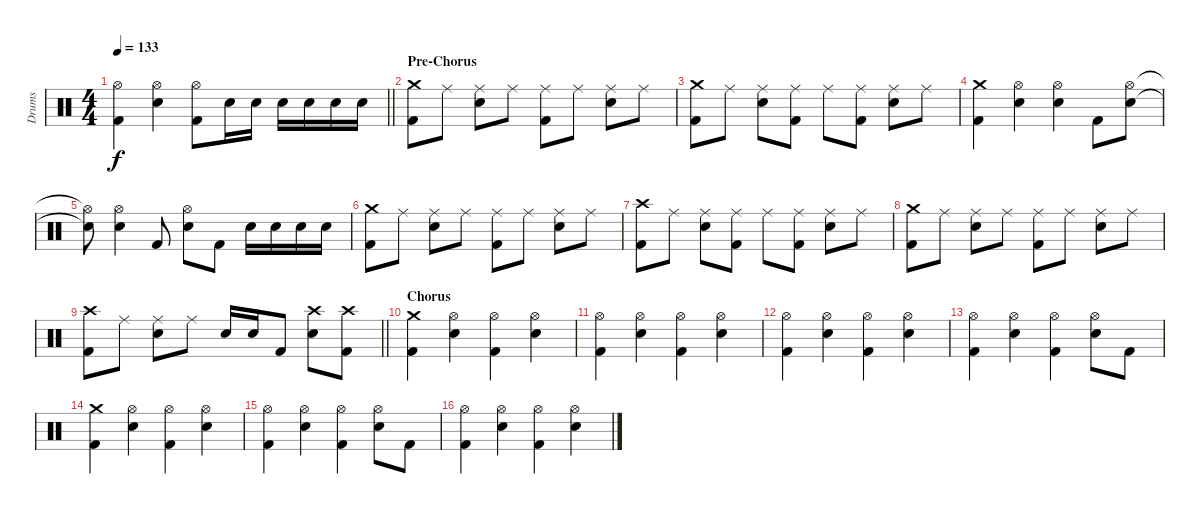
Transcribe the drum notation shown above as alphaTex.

\track ("Drums" "Drums") {instrument percussion}
\staff {score}
\articulation defaults
\ts (4 4)
\tempo 133
\clef neutral
\barLineRight lightlight
\ks c
("Hi-Hat (open)" "Kick (hit) 2").4{dy f} ("Hi-Hat (open)" "Snare (hit) 2").4 ("Hi-Hat (open)" "Kick (hit) 2").8 "Snare (hit) 2".16 "Snare (hit) 2".16 "Snare (hit) 2".16 "Snare (hit) 2".16 "Snare (hit) 2".16 "Snare (hit) 2".16 |
\section ("" "Pre-Chorus")
("Crash medium (hit)" "Kick (hit) 2").8 "Ride (middle)".8 ("Ride (middle)" "Snare (hit) 2").8 "Ride (middle)".8 ("Ride (middle)" "Kick (hit) 2").8 "Ride (middle)".8 ("Ride (middle)" "Snare (hit) 2").8 "Ride (middle)".8 |
("Crash medium (hit)" "Kick (hit) 2").8 "Ride (middle)".8 ("Ride (middle)" "Snare (hit) 2").8 ("Ride (middle)" "Kick (hit) 2").8 "Ride (middle)".8 ("Ride (middle)" "Kick (hit) 2").8 ("Ride (middle)" "Snare (hit) 2").8 "Ride (middle)".8 |
("Crash medium (hit)" "Kick (hit) 2").4 ("Hi-Hat (open)" "Snare (hit) 2").4 ("Hi-Hat (open)" "Snare (hit) 2").4 "Kick (hit) 2".8 ("Hi-Hat (open)" "Snare (hit) 2").8 |
("Hi-Hat (open)"{t} "Snare (hit) 2"{t}).8 ("Hi-Hat (open)" "Snare (hit) 2").4 "Kick (hit) 2".8 ("Hi-Hat (open)" "Snare (hit) 2").8 "Kick (hit) 2".8 "Snare (hit) 2".16 "Snare (hit) 2".16 "Snare (hit) 2".16 "Snare (hit) 2".16 |
("Crash medium (hit)" "Kick (hit) 2").8 "Ride (middle)".8 ("Ride (middle)" "Snare (hit) 2").8 "Ride (middle)".8 ("Ride (middle)" "Kick (hit) 2").8 "Ride (middle)".8 ("Ride (middle)" "Snare (hit) 2").8 "Ride (middle)".8 |
("Crash high (hit)" "Kick (hit) 2").8 "Ride (middle)".8 ("Ride (middle)" "Snare (hit) 2").8 ("Ride (middle)" "Kick (hit) 2").8 "Ride (middle)".8 ("Ride (middle)" "Kick (hit) 2").8 ("Ride (middle)" "Snare (hit) 2").8 "Ride (middle)".8 |
("Crash medium (hit)" "Kick (hit) 2").8 "Ride (middle)".8 ("Ride (middle)" "Snare (hit) 2").8 "Ride (middle)".8 ("Ride (middle)" "Kick (hit) 2").8 "Ride (middle)".8 ("Ride (middle)" "Snare (hit) 2").8 "Ride (middle)".8 |
\barLineRight lightlight
("Crash high (hit)" "Kick (hit) 2").8 "Ride (middle)".8 ("Ride (middle)" "Snare (hit) 2").8 "Ride (middle)".8 "Snare (hit) 2".16 "Snare (hit) 2".16 "Kick (hit) 2".8 ("Crash high (hit)" "Snare (hit) 2").8 ("Crash high (hit)" "Kick (hit) 2").8 |
\section ("" "Chorus")
("Crash medium (hit)" "Kick (hit) 2").4 ("Hi-Hat (open)" "Snare (hit) 2").4 ("Hi-Hat (open)" "Kick (hit) 2").4 ("Hi-Hat (open)" "Snare (hit) 2").4 |
("Hi-Hat (open)" "Kick (hit) 2").4 ("Hi-Hat (open)" "Snare (hit) 2").4 ("Hi-Hat (open)" "Kick (hit) 2").4 ("Hi-Hat (open)" "Snare (hit) 2").4 |
("Hi-Hat (open)" "Kick (hit) 2").4 ("Hi-Hat (open)" "Snare (hit) 2").4 ("Hi-Hat (open)" "Kick (hit) 2").4 ("Hi-Hat (open)" "Snare (hit) 2").4 |
("Hi-Hat (open)" "Kick (hit) 2").4 ("Hi-Hat (open)" "Snare (hit) 2").4 ("Hi-Hat (open)" "Kick (hit) 2").4 ("Hi-Hat (open)" "Snare (hit) 2").8 "Kick (hit) 2".8 |
("Crash medium (hit)" "Kick (hit) 2").4 ("Hi-Hat (open)" "Snare (hit) 2").4 ("Hi-Hat (open)" "Kick (hit) 2").4 ("Hi-Hat (open)" "Snare (hit) 2").4 |
("Hi-Hat (open)" "Kick (hit) 2").4 ("Hi-Hat (open)" "Snare (hit) 2").4 ("Hi-Hat (open)" "Kick (hit) 2").4 ("Hi-Hat (open)" "Snare (hit) 2").8 "Kick (hit) 2".8 |
("Hi-Hat (open)" "Kick (hit) 2").4 ("Hi-Hat (open)" "Snare (hit) 2").4 ("Hi-Hat (open)" "Kick (hit) 2").4 ("Hi-Hat (open)" "Snare (hit) 2").4
